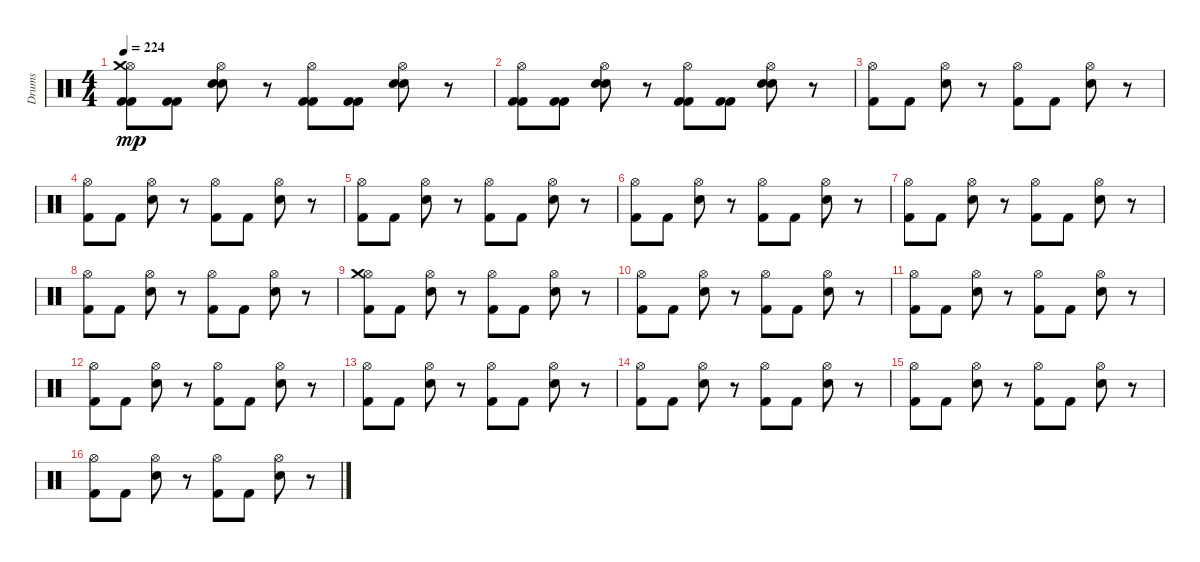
\track ("Drums" "Drums") {instrument percussion}
\staff {score}
\articulation defaults
\ts (4 4)
\tempo 224
\clef neutral
\ks c
("Hi-Hat (open)" "Kick (hit) 2" "Crash medium (hit)" "Kick (hit) 2").8{dy mp} ("Kick (hit) 2" "Kick (hit) 2").8 ("Hi-Hat (open)" "Electric Snare (hit)" "Electric Snare (hit)").8 r.8 ("Kick (hit) 2" "Kick (hit) 2" "Hi-Hat (open)").8 ("Kick (hit) 2" "Kick (hit) 2").8 ("Hi-Hat (open)" "Electric Snare (hit)" "Electric Snare (hit)").8 r.8 |
("Hi-Hat (open)" "Kick (hit) 2" "Kick (hit) 2").8 ("Kick (hit) 2" "Kick (hit) 2").8 ("Hi-Hat (open)" "Electric Snare (hit)" "Electric Snare (hit)").8 r.8 ("Kick (hit) 2" "Hi-Hat (open)" "Kick (hit) 2").8 ("Kick (hit) 2" "Kick (hit) 2").8 ("Hi-Hat (open)" "Electric Snare (hit)" "Electric Snare (hit)").8 r.8 |
("Kick (hit) 2" "Hi-Hat (open)").8 "Kick (hit) 2".8 ("Electric Snare (hit)" "Hi-Hat (open)").8 r.8 ("Hi-Hat (open)" "Kick (hit) 2").8 "Kick (hit) 2".8 ("Hi-Hat (open)" "Electric Snare (hit)").8 r.8 |
("Hi-Hat (open)" "Kick (hit) 2").8 "Kick (hit) 2".8 ("Hi-Hat (open)" "Electric Snare (hit)").8 r.8 ("Kick (hit) 2" "Hi-Hat (open)").8 "Kick (hit) 2".8 ("Hi-Hat (open)" "Electric Snare (hit)").8 r.8 |
("Hi-Hat (open)" "Kick (hit) 2").8 "Kick (hit) 2".8 ("Hi-Hat (open)" "Electric Snare (hit)").8 r.8 ("Hi-Hat (open)" "Kick (hit) 2").8 "Kick (hit) 2".8 ("Hi-Hat (open)" "Electric Snare (hit)").8 r.8 |
("Kick (hit) 2" "Hi-Hat (open)").8 "Kick (hit) 2".8 ("Electric Snare (hit)" "Hi-Hat (open)").8 r.8 ("Kick (hit) 2" "Hi-Hat (open)").8 "Kick (hit) 2".8 ("Electric Snare (hit)" "Hi-Hat (open)").8 r.8 |
("Hi-Hat (open)" "Kick (hit) 2").8 "Kick (hit) 2".8 ("Hi-Hat (open)" "Electric Snare (hit)").8 r.8 ("Kick (hit) 2" "Hi-Hat (open)").8 "Kick (hit) 2".8 ("Hi-Hat (open)" "Electric Snare (hit)").8 r.8 |
("Kick (hit) 2" "Hi-Hat (open)").8 "Kick (hit) 2".8 ("Hi-Hat (open)" "Electric Snare (hit)").8 r.8 ("Kick (hit) 2" "Hi-Hat (open)").8 "Kick (hit) 2".8 ("Electric Snare (hit)" "Hi-Hat (open)").8 r.8 |
("Hi-Hat (open)" "Kick (hit) 2" "Crash medium (hit)").8 "Kick (hit) 2".8 ("Electric Snare (hit)" "Hi-Hat (open)").8 r.8 ("Kick (hit) 2" "Hi-Hat (open)").8 "Kick (hit) 2".8 ("Hi-Hat (open)" "Electric Snare (hit)").8 r.8 |
("Hi-Hat (open)" "Kick (hit) 2").8 "Kick (hit) 2".8 ("Electric Snare (hit)" "Hi-Hat (open)").8 r.8 ("Hi-Hat (open)" "Kick (hit) 2").8 "Kick (hit) 2".8 ("Hi-Hat (open)" "Electric Snare (hit)").8 r.8 |
("Hi-Hat (open)" "Kick (hit) 2").8 "Kick (hit) 2".8 ("Hi-Hat (open)" "Electric Snare (hit)").8 r.8 ("Hi-Hat (open)" "Kick (hit) 2").8 "Kick (hit) 2".8 ("Hi-Hat (open)" "Electric Snare (hit)").8 r.8 |
("Hi-Hat (open)" "Kick (hit) 2").8 "Kick (hit) 2".8 ("Electric Snare (hit)" "Hi-Hat (open)").8 r.8 ("Kick (hit) 2" "Hi-Hat (open)").8 "Kick (hit) 2".8 ("Electric Snare (hit)" "Hi-Hat (open)").8 r.8 |
("Hi-Hat (open)" "Kick (hit) 2").8 "Kick (hit) 2".8 ("Electric Snare (hit)" "Hi-Hat (open)").8 r.8 ("Kick (hit) 2" "Hi-Hat (open)").8 "Kick (hit) 2".8 ("Hi-Hat (open)" "Electric Snare (hit)").8 r.8 |
("Hi-Hat (open)" "Kick (hit) 2").8 "Kick (hit) 2".8 ("Electric Snare (hit)" "Hi-Hat (open)").8 r.8 ("Kick (hit) 2" "Hi-Hat (open)").8 "Kick (hit) 2".8 ("Electric Snare (hit)" "Hi-Hat (open)").8 r.8 |
("Kick (hit) 2" "Hi-Hat (open)").8 "Kick (hit) 2".8 ("Hi-Hat (open)" "Electric Snare (hit)").8 r.8 ("Kick (hit) 2" "Hi-Hat (open)").8 "Kick (hit) 2".8 ("Hi-Hat (open)" "Electric Snare (hit)").8 r.8 |
("Hi-Hat (open)" "Kick (hit) 2").8 "Kick (hit) 2".8 ("Hi-Hat (open)" "Electric Snare (hit)").8 r.8 ("Hi-Hat (open)" "Kick (hit) 2").8 "Kick (hit) 2".8 ("Electric Snare (hit)" "Hi-Hat (open)").8 r.8
